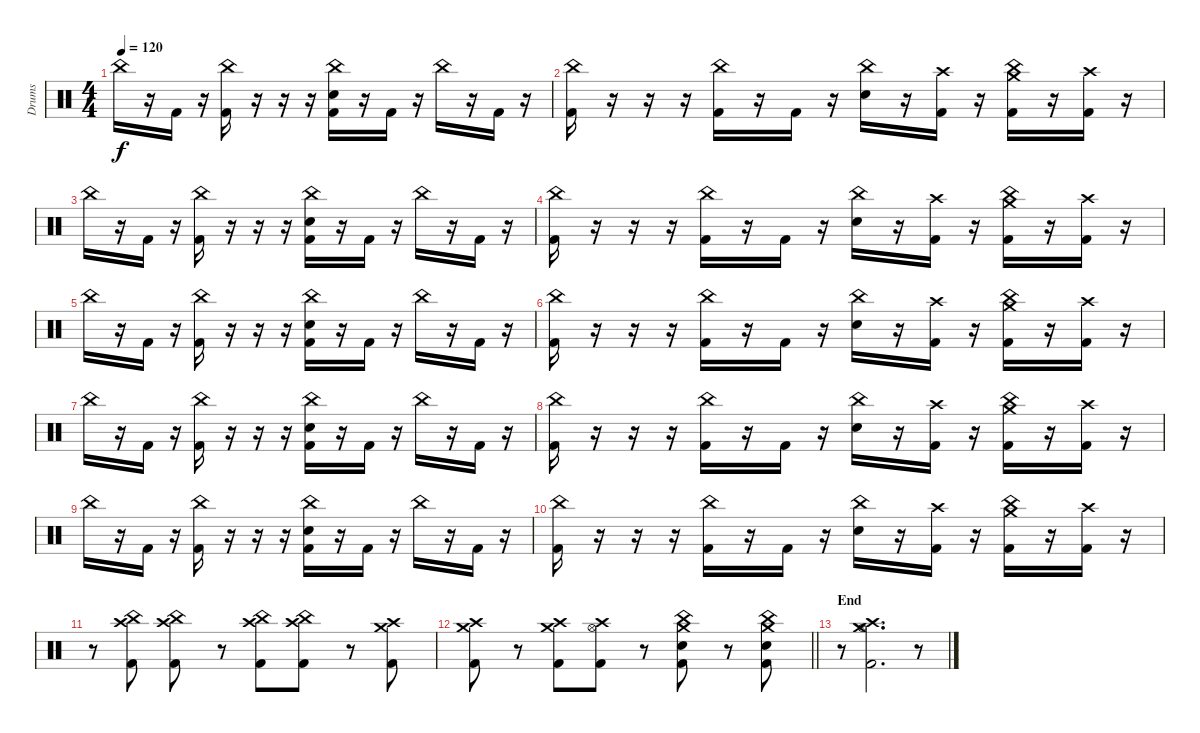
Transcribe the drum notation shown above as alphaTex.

\track ("Drums" "Drums") {instrument percussion}
\staff {score}
\articulation defaults
\ts (4 4)
\tempo 120
\clef neutral
\ks c "China (hit)".16{dy f}
r.16 "Kick (hit) 2".16 r.16 ("China (hit)" "Kick (hit) 2").16 r.16 r.16 r.16 ("China (hit)" "Snare (hit) 2" "Kick (hit) 2").16 r.16 "Kick (hit) 2".16 r.16 "China (hit)".16 r.16 "Kick (hit) 2".16 r.16 |
("China (hit)" "Kick (hit) 2").16 r.16 r.16 r.16 ("China (hit)" "Kick (hit) 2").16 r.16 "Kick (hit) 2".16 r.16 ("China (hit)" "Snare (hit) 2").16 r.16 ("Crash high (hit)" "Kick (hit) 2").16 r.16 ("Crash medium (hit)" "China (hit)" "Kick (hit) 2").16 r.16 ("Crash high (hit)" "Kick (hit) 2").16 r.16 |
"China (hit)".16 r.16 "Kick (hit) 2".16 r.16 ("China (hit)" "Kick (hit) 2").16 r.16 r.16 r.16 ("China (hit)" "Snare (hit) 2" "Kick (hit) 2").16 r.16 "Kick (hit) 2".16 r.16 "China (hit)".16 r.16 "Kick (hit) 2".16 r.16 |
("China (hit)" "Kick (hit) 2").16 r.16 r.16 r.16 ("China (hit)" "Kick (hit) 2").16 r.16 "Kick (hit) 2".16 r.16 ("China (hit)" "Snare (hit) 2").16 r.16 ("Crash high (hit)" "Kick (hit) 2").16 r.16 ("Crash medium (hit)" "China (hit)" "Kick (hit) 2").16 r.16 ("Crash high (hit)" "Kick (hit) 2").16 r.16 |
"China (hit)".16 r.16 "Kick (hit) 2".16 r.16 ("China (hit)" "Kick (hit) 2").16 r.16 r.16 r.16 ("China (hit)" "Snare (hit) 2" "Kick (hit) 2").16 r.16 "Kick (hit) 2".16 r.16 "China (hit)".16 r.16 "Kick (hit) 2".16 r.16 |
("China (hit)" "Kick (hit) 2").16 r.16 r.16 r.16 ("China (hit)" "Kick (hit) 2").16 r.16 "Kick (hit) 2".16 r.16 ("China (hit)" "Snare (hit) 2").16 r.16 ("Crash high (hit)" "Kick (hit) 2").16 r.16 ("Crash medium (hit)" "China (hit)" "Kick (hit) 2").16 r.16 ("Crash high (hit)" "Kick (hit) 2").16 r.16 |
"China (hit)".16 r.16 "Kick (hit) 2".16 r.16 ("China (hit)" "Kick (hit) 2").16 r.16 r.16 r.16 ("China (hit)" "Snare (hit) 2" "Kick (hit) 2").16 r.16 "Kick (hit) 2".16 r.16 "China (hit)".16 r.16 "Kick (hit) 2".16 r.16 |
("China (hit)" "Kick (hit) 2").16 r.16 r.16 r.16 ("China (hit)" "Kick (hit) 2").16 r.16 "Kick (hit) 2".16 r.16 ("China (hit)" "Snare (hit) 2").16 r.16 ("Crash high (hit)" "Kick (hit) 2").16 r.16 ("Crash medium (hit)" "China (hit)" "Kick (hit) 2").16 r.16 ("Crash high (hit)" "Kick (hit) 2").16 r.16 |
"China (hit)".16 r.16 "Kick (hit) 2".16 r.16 ("China (hit)" "Kick (hit) 2").16 r.16 r.16 r.16 ("China (hit)" "Snare (hit) 2" "Kick (hit) 2").16 r.16 "Kick (hit) 2".16 r.16 "China (hit)".16 r.16 "Kick (hit) 2".16 r.16 |
("China (hit)" "Kick (hit) 2").16 r.16 r.16 r.16 ("China (hit)" "Kick (hit) 2").16 r.16 "Kick (hit) 2".16 r.16 ("China (hit)" "Snare (hit) 2").16 r.16 ("Crash high (hit)" "Kick (hit) 2").16 r.16 ("Crash medium (hit)" "China (hit)" "Kick (hit) 2").16 r.16 ("Crash high (hit)" "Kick (hit) 2").16 r.16 |
r.8 ("Crash high (hit)" "China (hit)" "Kick (hit) 2").8 ("Crash high (hit)" "China (hit)" "Kick (hit) 2").8 r.8 ("Crash high (hit)" "China (hit)" "Kick (hit) 2").8 ("Crash high (hit)" "China (hit)" "Kick (hit) 2").8 r.8 ("Crash high (hit)" "Crash medium (hit)" "Kick (hit) 2").8 |
\barLineRight lightlight
("Crash high (hit)" "Crash medium (hit)" "Kick (hit) 2").8 r.8 ("Crash high (hit)" "Crash medium (hit)" "Kick (hit) 2").8 ("Crash high (hit)" "Hi-Hat (open)" "Kick (hit) 2").8 r.8 ("Crash medium (hit)" "China (hit)" "Snare (hit) 2" "Kick (hit) 2").8 r.8 ("Crash medium (hit)" "China (hit)" "Snare (hit) 2" "Kick (hit) 2").8 |
\section ("" "End")
r.8 ("Crash medium (hit)" "Crash high (hit)" "Hi-Hat (open)" "Kick (hit) 2").2{d} r.8
